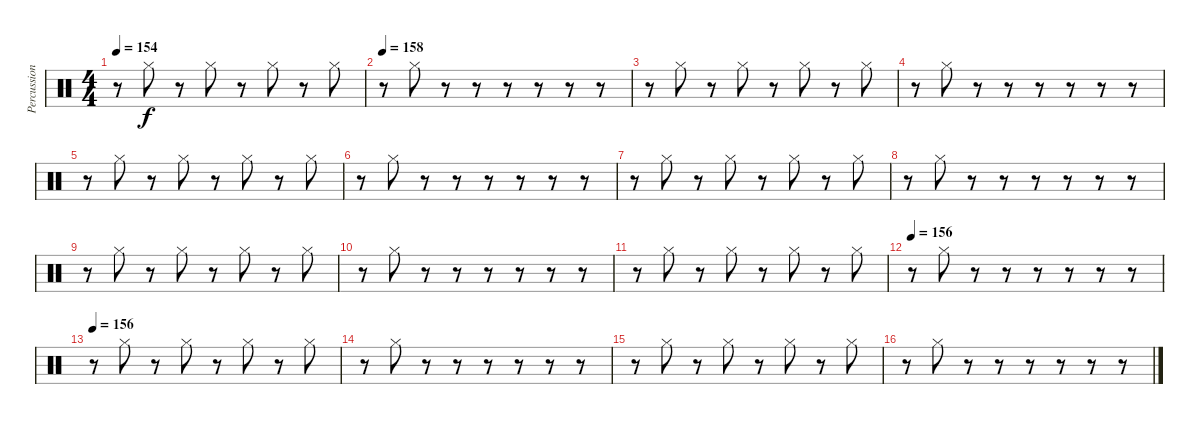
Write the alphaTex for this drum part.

\track ("Percussion" "Percussion") {instrument percussion}
\staff {score}
\articulation defaults
\ts (4 4)
\tempo 154
\clef neutral
\ks c
r.8{dy f} "Hi-Hat (closed)".8 r.8 "Hi-Hat (closed)".8 r.8 "Hi-Hat (closed)".8 r.8 "Hi-Hat (closed)".8 |
\tempo 158
r.8 "Hi-Hat (closed)".8 r.8 r.8 r.8 r.8 r.8 r.8 |
r.8 "Hi-Hat (closed)".8 r.8 "Hi-Hat (closed)".8 r.8 "Hi-Hat (closed)".8 r.8 "Hi-Hat (closed)".8 |
r.8 "Hi-Hat (closed)".8 r.8 r.8 r.8 r.8 r.8 r.8 |
r.8 "Hi-Hat (closed)".8 r.8 "Hi-Hat (closed)".8 r.8 "Hi-Hat (closed)".8 r.8 "Hi-Hat (closed)".8 |
r.8 "Hi-Hat (closed)".8 r.8 r.8 r.8 r.8 r.8 r.8 |
r.8 "Hi-Hat (closed)".8 r.8 "Hi-Hat (closed)".8 r.8 "Hi-Hat (closed)".8 r.8 "Hi-Hat (closed)".8 |
r.8 "Hi-Hat (closed)".8 r.8 r.8 r.8 r.8 r.8 r.8 |
r.8 "Hi-Hat (closed)".8 r.8 "Hi-Hat (closed)".8 r.8 "Hi-Hat (closed)".8 r.8 "Hi-Hat (closed)".8 |
r.8 "Hi-Hat (closed)".8 r.8 r.8 r.8 r.8 r.8 r.8 |
r.8 "Hi-Hat (closed)".8 r.8 "Hi-Hat (closed)".8 r.8 "Hi-Hat (closed)".8 r.8 "Hi-Hat (closed)".8 |
\tempo 156
r.8 "Hi-Hat (closed)".8 r.8 r.8 r.8 r.8 r.8 r.8 |
\tempo 156
r.8 "Hi-Hat (closed)".8 r.8 "Hi-Hat (closed)".8 r.8 "Hi-Hat (closed)".8 r.8 "Hi-Hat (closed)".8 |
r.8 "Hi-Hat (closed)".8 r.8 r.8 r.8 r.8 r.8 r.8 |
r.8 "Hi-Hat (closed)".8 r.8 "Hi-Hat (closed)".8 r.8 "Hi-Hat (closed)".8 r.8 "Hi-Hat (closed)".8 |
r.8 "Hi-Hat (closed)".8 r.8 r.8 r.8 r.8 r.8 r.8
